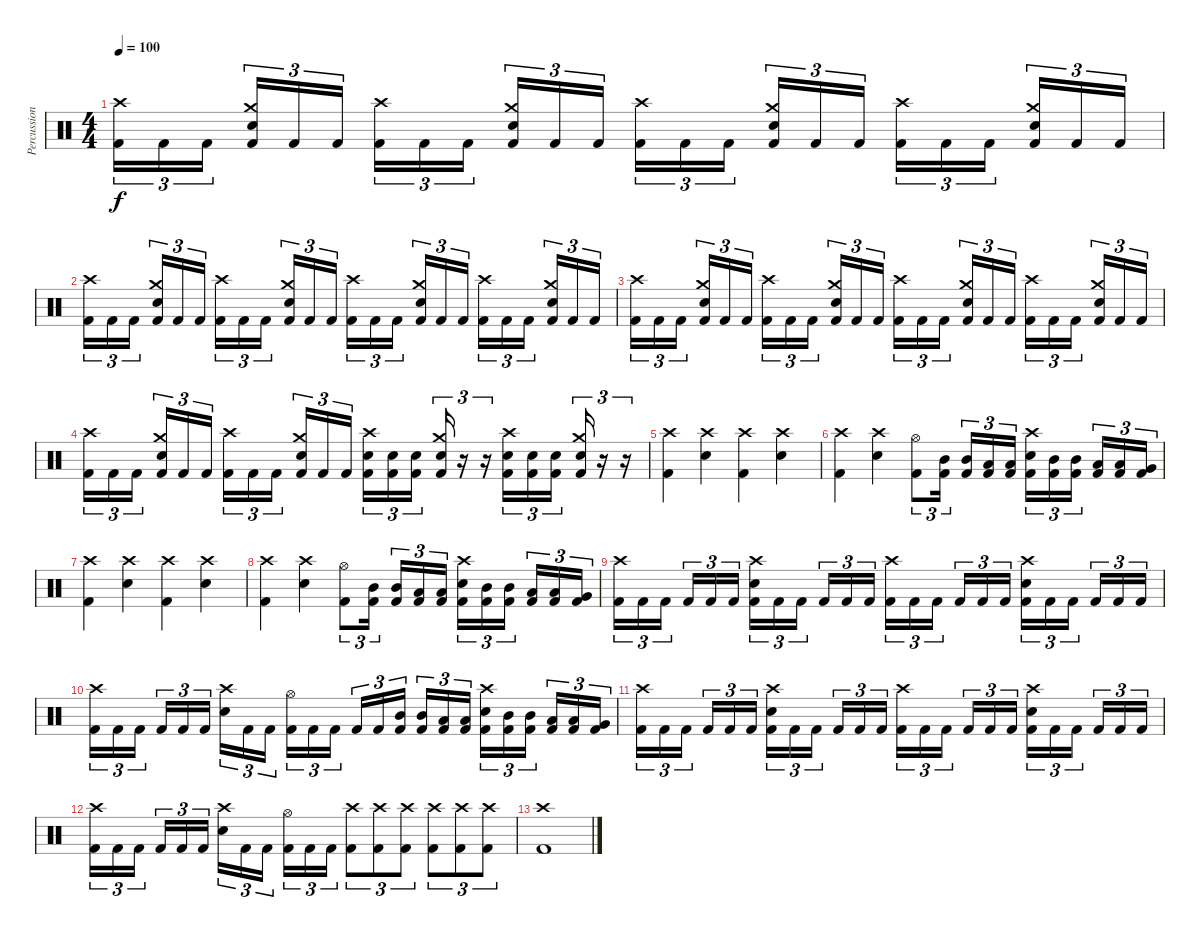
\track ("Percussion" "Percussion") {instrument percussion}
\staff {score}
\articulation defaults
\ts (4 4)
\tempo 100
\clef neutral
\ks c
("Crash high (hit)" "Kick (hit) 2").16{tu (3 2) dy f} "Kick (hit) 2".16{tu (3 2)} "Kick (hit) 2".16{tu (3 2)} ("Crash medium (hit)" "Electric Snare (hit)" "Kick (hit) 2").16{tu (3 2)} "Kick (hit) 2".16{tu (3 2)} "Kick (hit) 2".16{tu (3 2)} ("Crash high (hit)" "Kick (hit) 2").16{tu (3 2)} "Kick (hit) 2".16{tu (3 2)} "Kick (hit) 2".16{tu (3 2)} ("Crash medium (hit)" "Electric Snare (hit)" "Kick (hit) 2").16{tu (3 2)} "Kick (hit) 2".16{tu (3 2)} "Kick (hit) 2".16{tu (3 2)} ("Crash high (hit)" "Kick (hit) 2").16{tu (3 2)} "Kick (hit) 2".16{tu (3 2)} "Kick (hit) 2".16{tu (3 2)} ("Crash medium (hit)" "Electric Snare (hit)" "Kick (hit) 2").16{tu (3 2)} "Kick (hit) 2".16{tu (3 2)} "Kick (hit) 2".16{tu (3 2)} ("Crash high (hit)" "Kick (hit) 2").16{tu (3 2)} "Kick (hit) 2".16{tu (3 2)} "Kick (hit) 2".16{tu (3 2)} ("Crash medium (hit)" "Electric Snare (hit)" "Kick (hit) 2").16{tu (3 2)} "Kick (hit) 2".16{tu (3 2)} "Kick (hit) 2".16{tu (3 2)} |
("Crash high (hit)" "Kick (hit) 2").16{tu (3 2)} "Kick (hit) 2".16{tu (3 2)} "Kick (hit) 2".16{tu (3 2)} ("Crash medium (hit)" "Electric Snare (hit)" "Kick (hit) 2").16{tu (3 2)} "Kick (hit) 2".16{tu (3 2)} "Kick (hit) 2".16{tu (3 2)} ("Crash high (hit)" "Kick (hit) 2").16{tu (3 2)} "Kick (hit) 2".16{tu (3 2)} "Kick (hit) 2".16{tu (3 2)} ("Crash medium (hit)" "Electric Snare (hit)" "Kick (hit) 2").16{tu (3 2)} "Kick (hit) 2".16{tu (3 2)} "Kick (hit) 2".16{tu (3 2)} ("Crash high (hit)" "Kick (hit) 2").16{tu (3 2)} "Kick (hit) 2".16{tu (3 2)} "Kick (hit) 2".16{tu (3 2)} ("Crash medium (hit)" "Electric Snare (hit)" "Kick (hit) 2").16{tu (3 2)} "Kick (hit) 2".16{tu (3 2)} "Kick (hit) 2".16{tu (3 2)} ("Crash high (hit)" "Kick (hit) 2").16{tu (3 2)} "Kick (hit) 2".16{tu (3 2)} "Kick (hit) 2".16{tu (3 2)} ("Crash medium (hit)" "Electric Snare (hit)" "Kick (hit) 2").16{tu (3 2)} "Kick (hit) 2".16{tu (3 2)} "Kick (hit) 2".16{tu (3 2)} |
("Crash high (hit)" "Kick (hit) 2").16{tu (3 2)} "Kick (hit) 2".16{tu (3 2)} "Kick (hit) 2".16{tu (3 2)} ("Crash medium (hit)" "Electric Snare (hit)" "Kick (hit) 2").16{tu (3 2)} "Kick (hit) 2".16{tu (3 2)} "Kick (hit) 2".16{tu (3 2)} ("Crash high (hit)" "Kick (hit) 2").16{tu (3 2)} "Kick (hit) 2".16{tu (3 2)} "Kick (hit) 2".16{tu (3 2)} ("Crash medium (hit)" "Electric Snare (hit)" "Kick (hit) 2").16{tu (3 2)} "Kick (hit) 2".16{tu (3 2)} "Kick (hit) 2".16{tu (3 2)} ("Crash high (hit)" "Kick (hit) 2").16{tu (3 2)} "Kick (hit) 2".16{tu (3 2)} "Kick (hit) 2".16{tu (3 2)} ("Crash medium (hit)" "Electric Snare (hit)" "Kick (hit) 2").16{tu (3 2)} "Kick (hit) 2".16{tu (3 2)} "Kick (hit) 2".16{tu (3 2)} ("Crash high (hit)" "Kick (hit) 2").16{tu (3 2)} "Kick (hit) 2".16{tu (3 2)} "Kick (hit) 2".16{tu (3 2)} ("Crash medium (hit)" "Electric Snare (hit)" "Kick (hit) 2").16{tu (3 2)} "Kick (hit) 2".16{tu (3 2)} "Kick (hit) 2".16{tu (3 2)} |
("Crash high (hit)" "Kick (hit) 2").16{tu (3 2)} "Kick (hit) 2".16{tu (3 2)} "Kick (hit) 2".16{tu (3 2)} ("Crash medium (hit)" "Electric Snare (hit)" "Kick (hit) 2").16{tu (3 2)} "Kick (hit) 2".16{tu (3 2)} "Kick (hit) 2".16{tu (3 2)} ("Crash high (hit)" "Kick (hit) 2").16{tu (3 2)} "Kick (hit) 2".16{tu (3 2)} "Kick (hit) 2".16{tu (3 2)} ("Crash medium (hit)" "Electric Snare (hit)" "Kick (hit) 2").16{tu (3 2)} "Kick (hit) 2".16{tu (3 2)} "Kick (hit) 2".16{tu (3 2)} ("Crash high (hit)" "Electric Snare (hit)" "Kick (hit) 2").16{tu (3 2)} ("Electric Snare (hit)" "Kick (hit) 2").16{tu (3 2)} ("Electric Snare (hit)" "Kick (hit) 2").16{tu (3 2)} ("Crash medium (hit)" "Electric Snare (hit)" "Kick (hit) 2").16{tu (3 2)} r.16{tu (3 2)} r.16{tu (3 2)} ("Crash high (hit)" "Electric Snare (hit)" "Kick (hit) 2").16{tu (3 2)} ("Electric Snare (hit)" "Kick (hit) 2").16{tu (3 2)} ("Electric Snare (hit)" "Kick (hit) 2").16{tu (3 2)} ("Crash medium (hit)" "Electric Snare (hit)" "Kick (hit) 2").16{tu (3 2)} r.16{tu (3 2)} r.16{tu (3 2)} |
("Crash high (hit)" "Kick (hit) 2").4 ("Crash high (hit)" "Electric Snare (hit)").4 ("Crash high (hit)" "Kick (hit) 2").4 ("Crash high (hit)" "Electric Snare (hit)").4 |
("Crash high (hit)" "Kick (hit) 2").4 ("Crash high (hit)" "Electric Snare (hit)").4 ("Hi-Hat (open)" "Kick (hit) 2").8{tu (3 2)} ("Mid Tom (hit)" "Kick (hit) 2").16{tu (3 2)} ("Mid Tom (hit)" "Kick (hit) 2").16{tu (3 2)} ("Low Tom (hit)" "Kick (hit) 2").16{tu (3 2)} ("Low Tom (hit)" "Kick (hit) 2").16{tu (3 2)} ("Crash high (hit)" "Electric Snare (hit)" "Kick (hit) 2").16{tu (3 2)} ("Mid Tom (hit)" "Kick (hit) 2").16{tu (3 2)} ("Mid Tom (hit)" "Kick (hit) 2").16{tu (3 2)} ("Low Tom (hit)" "Kick (hit) 2").16{tu (3 2)} ("Low Tom (hit)" "Kick (hit) 2").16{tu (3 2)} ("Very Low Tom (hit)" "Kick (hit) 2").16{tu (3 2)} |
("Crash high (hit)" "Kick (hit) 2").4 ("Crash high (hit)" "Electric Snare (hit)").4 ("Crash high (hit)" "Kick (hit) 2").4 ("Crash high (hit)" "Electric Snare (hit)").4 |
("Crash high (hit)" "Kick (hit) 2").4 ("Crash high (hit)" "Electric Snare (hit)").4 ("Hi-Hat (open)" "Kick (hit) 2").8{tu (3 2)} ("Mid Tom (hit)" "Kick (hit) 2").16{tu (3 2)} ("Mid Tom (hit)" "Kick (hit) 2").16{tu (3 2)} ("Low Tom (hit)" "Kick (hit) 2").16{tu (3 2)} ("Low Tom (hit)" "Kick (hit) 2").16{tu (3 2)} ("Crash high (hit)" "Electric Snare (hit)" "Kick (hit) 2").16{tu (3 2)} ("Mid Tom (hit)" "Kick (hit) 2").16{tu (3 2)} ("Mid Tom (hit)" "Kick (hit) 2").16{tu (3 2)} ("Low Tom (hit)" "Kick (hit) 2").16{tu (3 2)} ("Low Tom (hit)" "Kick (hit) 2").16{tu (3 2)} ("Very Low Tom (hit)" "Kick (hit) 2").16{tu (3 2)} |
("Crash high (hit)" "Kick (hit) 2").16{tu (3 2)} "Kick (hit) 2".16{tu (3 2)} "Kick (hit) 2".16{tu (3 2)} "Kick (hit) 2".16{tu (3 2)} "Kick (hit) 2".16{tu (3 2)} "Kick (hit) 2".16{tu (3 2)} ("Crash high (hit)" "Electric Snare (hit)" "Kick (hit) 2").16{tu (3 2)} "Kick (hit) 2".16{tu (3 2)} "Kick (hit) 2".16{tu (3 2)} "Kick (hit) 2".16{tu (3 2)} "Kick (hit) 2".16{tu (3 2)} "Kick (hit) 2".16{tu (3 2)} ("Crash high (hit)" "Kick (hit) 2").16{tu (3 2)} "Kick (hit) 2".16{tu (3 2)} "Kick (hit) 2".16{tu (3 2)} "Kick (hit) 2".16{tu (3 2)} "Kick (hit) 2".16{tu (3 2)} "Kick (hit) 2".16{tu (3 2)} ("Crash high (hit)" "Electric Snare (hit)" "Kick (hit) 2").16{tu (3 2)} "Kick (hit) 2".16{tu (3 2)} "Kick (hit) 2".16{tu (3 2)} "Kick (hit) 2".16{tu (3 2)} "Kick (hit) 2".16{tu (3 2)} "Kick (hit) 2".16{tu (3 2)} |
("Crash high (hit)" "Kick (hit) 2").16{tu (3 2)} "Kick (hit) 2".16{tu (3 2)} "Kick (hit) 2".16{tu (3 2)} "Kick (hit) 2".16{tu (3 2)} "Kick (hit) 2".16{tu (3 2)} "Kick (hit) 2".16{tu (3 2)} ("Crash high (hit)" "Electric Snare (hit)").16{tu (3 2)} "Kick (hit) 2".16{tu (3 2)} "Kick (hit) 2".16{tu (3 2)} ("Hi-Hat (open)" "Kick (hit) 2").16{tu (3 2)} "Kick (hit) 2".16{tu (3 2)} "Kick (hit) 2".16{tu (3 2)} "Kick (hit) 2".16{tu (3 2)} "Kick (hit) 2".16{tu (3 2)} ("Mid Tom (hit)" "Kick (hit) 2").16{tu (3 2)} ("Mid Tom (hit)" "Kick (hit) 2").16{tu (3 2)} ("Low Tom (hit)" "Kick (hit) 2").16{tu (3 2)} ("Low Tom (hit)" "Kick (hit) 2").16{tu (3 2)} ("Crash high (hit)" "Electric Snare (hit)" "Kick (hit) 2").16{tu (3 2)} ("Mid Tom (hit)" "Kick (hit) 2").16{tu (3 2)} ("Mid Tom (hit)" "Kick (hit) 2").16{tu (3 2)} ("Low Tom (hit)" "Kick (hit) 2").16{tu (3 2)} ("Low Tom (hit)" "Kick (hit) 2").16{tu (3 2)} ("Very Low Tom (hit)" "Kick (hit) 2").16{tu (3 2)} |
("Crash high (hit)" "Kick (hit) 2").16{tu (3 2)} "Kick (hit) 2".16{tu (3 2)} "Kick (hit) 2".16{tu (3 2)} "Kick (hit) 2".16{tu (3 2)} "Kick (hit) 2".16{tu (3 2)} "Kick (hit) 2".16{tu (3 2)} ("Crash high (hit)" "Electric Snare (hit)" "Kick (hit) 2").16{tu (3 2)} "Kick (hit) 2".16{tu (3 2)} "Kick (hit) 2".16{tu (3 2)} "Kick (hit) 2".16{tu (3 2)} "Kick (hit) 2".16{tu (3 2)} "Kick (hit) 2".16{tu (3 2)} ("Crash high (hit)" "Kick (hit) 2").16{tu (3 2)} "Kick (hit) 2".16{tu (3 2)} "Kick (hit) 2".16{tu (3 2)} "Kick (hit) 2".16{tu (3 2)} "Kick (hit) 2".16{tu (3 2)} "Kick (hit) 2".16{tu (3 2)} ("Crash high (hit)" "Electric Snare (hit)" "Kick (hit) 2").16{tu (3 2)} "Kick (hit) 2".16{tu (3 2)} "Kick (hit) 2".16{tu (3 2)} "Kick (hit) 2".16{tu (3 2)} "Kick (hit) 2".16{tu (3 2)} "Kick (hit) 2".16{tu (3 2)} |
("Crash high (hit)" "Kick (hit) 2").16{tu (3 2)} "Kick (hit) 2".16{tu (3 2)} "Kick (hit) 2".16{tu (3 2)} "Kick (hit) 2".16{tu (3 2)} "Kick (hit) 2".16{tu (3 2)} "Kick (hit) 2".16{tu (3 2)} ("Crash high (hit)" "Electric Snare (hit)").16{tu (3 2)} "Kick (hit) 2".16{tu (3 2)} "Kick (hit) 2".16{tu (3 2)} ("Hi-Hat (open)" "Kick (hit) 2").16{tu (3 2)} "Kick (hit) 2".16{tu (3 2)} "Kick (hit) 2".16{tu (3 2)} ("Crash high (hit)" "Kick (hit) 2").8{tu (3 2)} ("Crash high (hit)" "Kick (hit) 2").8{tu (3 2)} ("Crash high (hit)" "Kick (hit) 2").8{tu (3 2)} ("Crash high (hit)" "Kick (hit) 2").8{tu (3 2)} ("Crash high (hit)" "Kick (hit) 2").8{tu (3 2)} ("Crash high (hit)" "Kick (hit) 2").8{tu (3 2)} |
("Crash high (hit)" "Kick (hit) 2").1
